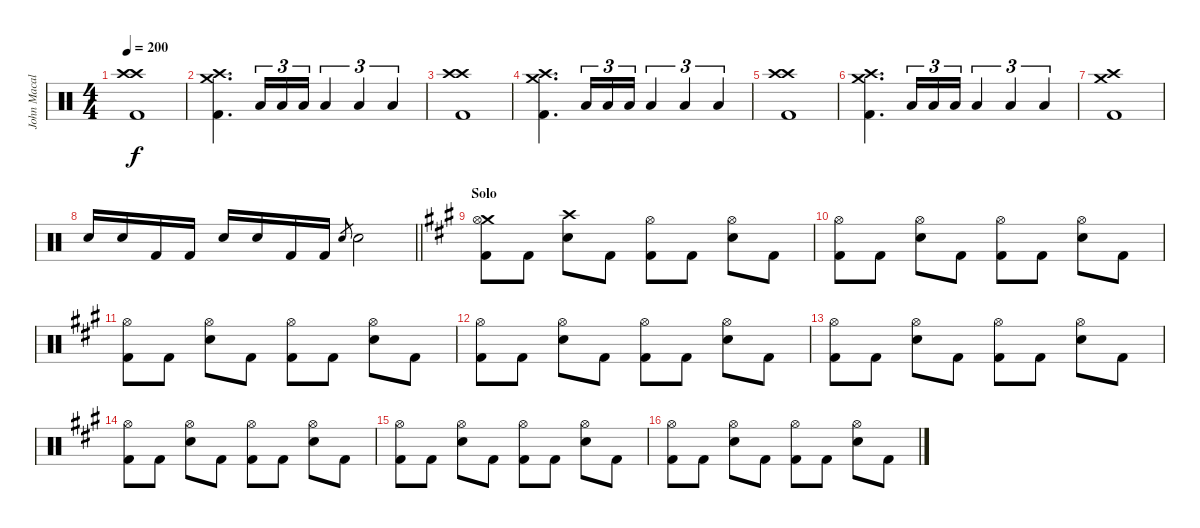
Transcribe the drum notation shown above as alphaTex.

\track ("John Macaluso" "John Macal") {instrument percussion}
\staff {score}
\articulation defaults
\ts (4 4)
\tempo 200
\clef neutral
\ks c
("Crash high (hit)" "Crash high (hit)" "Kick (hit) 2").1{dy f} |
("Crash medium (hit)" "Crash high (hit)" "Kick (hit) 2").4{d} "Low Tom (hit)".16{tu (3 2)} "Low Tom (hit)".16{tu (3 2)} "Low Tom (hit)".16{tu (3 2)} "Low Tom (hit)".4{tu (3 2)} "Low Tom (hit)".4{tu (3 2)} "Low Tom (hit)".4{tu (3 2)} |
("Crash high (hit)" "Crash high (hit)" "Kick (hit) 2").1 |
("Crash medium (hit)" "Crash high (hit)" "Kick (hit) 2").4{d} "Low Tom (hit)".16{tu (3 2)} "Low Tom (hit)".16{tu (3 2)} "Low Tom (hit)".16{tu (3 2)} "Low Tom (hit)".4{tu (3 2)} "Low Tom (hit)".4{tu (3 2)} "Low Tom (hit)".4{tu (3 2)} |
("Crash high (hit)" "Crash high (hit)" "Kick (hit) 2").1 |
("Crash medium (hit)" "Crash high (hit)" "Kick (hit) 2").4{d} "Low Tom (hit)".16{tu (3 2)} "Low Tom (hit)".16{tu (3 2)} "Low Tom (hit)".16{tu (3 2)} "Low Tom (hit)".4{tu (3 2)} "Low Tom (hit)".4{tu (3 2)} "Low Tom (hit)".4{tu (3 2)} |
("Crash medium (hit)" "Crash high (hit)" "Kick (hit) 2").1 |
\barLineRight lightlight "Snare (hit) 2".16 "Snare (hit) 2".16 "Kick (hit) 2".16 "Kick (hit) 2".16 "Snare (hit) 2".16 "Snare (hit) 2".16 "Kick (hit) 2".16 "Kick (hit) 2".16 "Snare (hit) 2".8{gr} "Snare (hit) 2".2
|
\section ("" "Solo")
\ks a
("Crash medium (hit)" "Hi-Hat (open)" "Kick (hit) 2").8 "Kick (hit) 2".8 ("Crash high (hit)" "Snare (hit) 2").8 "Kick (hit) 2".8 ("Hi-Hat (open)" "Kick (hit) 2").8 "Kick (hit) 2".8 ("Hi-Hat (open)" "Snare (hit) 2").8 "Kick (hit) 2".8 |
("Hi-Hat (open)" "Kick (hit) 2").8 "Kick (hit) 2".8 ("Hi-Hat (open)" "Snare (hit) 2").8 "Kick (hit) 2".8 ("Hi-Hat (open)" "Kick (hit) 2").8 "Kick (hit) 2".8 ("Hi-Hat (open)" "Snare (hit) 2").8 "Kick (hit) 2".8 |
("Hi-Hat (open)" "Kick (hit) 2").8 "Kick (hit) 2".8 ("Hi-Hat (open)" "Snare (hit) 2").8 "Kick (hit) 2".8 ("Hi-Hat (open)" "Kick (hit) 2").8 "Kick (hit) 2".8 ("Hi-Hat (open)" "Snare (hit) 2").8 "Kick (hit) 2".8 |
("Hi-Hat (open)" "Kick (hit) 2").8 "Kick (hit) 2".8 ("Hi-Hat (open)" "Snare (hit) 2").8 "Kick (hit) 2".8 ("Hi-Hat (open)" "Kick (hit) 2").8 "Kick (hit) 2".8 ("Hi-Hat (open)" "Snare (hit) 2").8 "Kick (hit) 2".8 |
("Hi-Hat (open)" "Kick (hit) 2").8 "Kick (hit) 2".8 ("Hi-Hat (open)" "Snare (hit) 2").8 "Kick (hit) 2".8 ("Hi-Hat (open)" "Kick (hit) 2").8 "Kick (hit) 2".8 ("Hi-Hat (open)" "Snare (hit) 2").8 "Kick (hit) 2".8 |
("Hi-Hat (open)" "Kick (hit) 2").8 "Kick (hit) 2".8 ("Hi-Hat (open)" "Snare (hit) 2").8 "Kick (hit) 2".8 ("Hi-Hat (open)" "Kick (hit) 2").8 "Kick (hit) 2".8 ("Hi-Hat (open)" "Snare (hit) 2").8 "Kick (hit) 2".8 |
("Hi-Hat (open)" "Kick (hit) 2").8 "Kick (hit) 2".8 ("Hi-Hat (open)" "Snare (hit) 2").8 "Kick (hit) 2".8 ("Hi-Hat (open)" "Kick (hit) 2").8 "Kick (hit) 2".8 ("Hi-Hat (open)" "Snare (hit) 2").8 "Kick (hit) 2".8 |
("Hi-Hat (open)" "Kick (hit) 2").8 "Kick (hit) 2".8 ("Hi-Hat (open)" "Snare (hit) 2").8 "Kick (hit) 2".8 ("Hi-Hat (open)" "Kick (hit) 2").8 "Kick (hit) 2".8 ("Hi-Hat (open)" "Snare (hit) 2").8 "Kick (hit) 2".8
